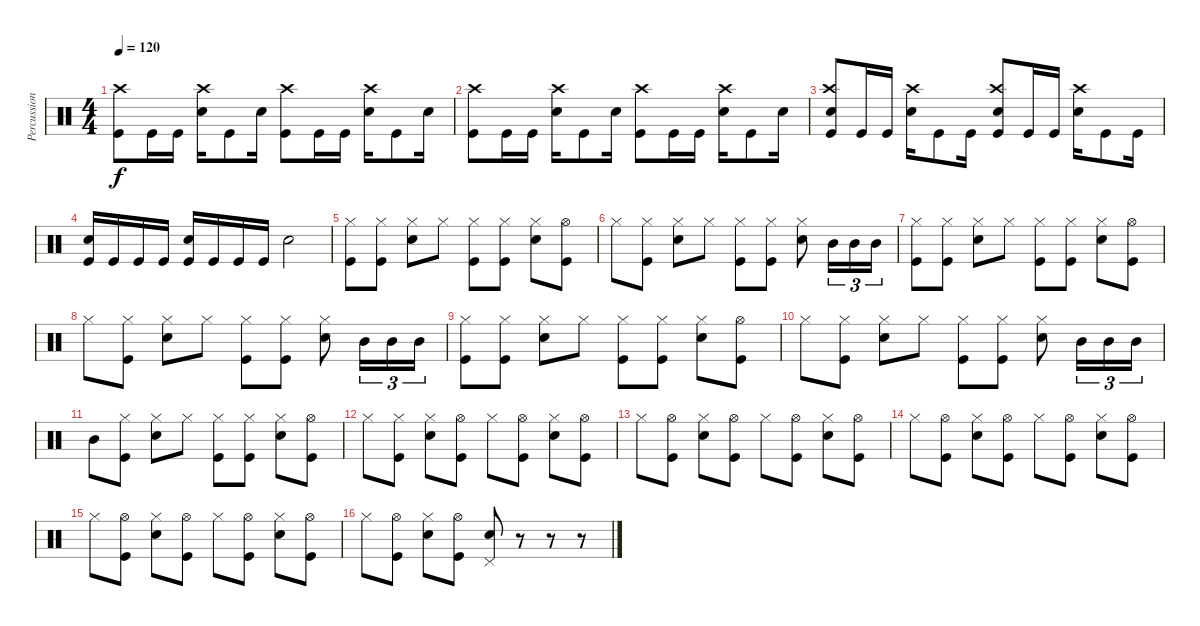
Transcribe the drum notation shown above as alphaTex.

\track ("Percussion" "Percussion") {instrument percussion}
\staff {score}
\articulation defaults
\ts (4 4)
\tempo 120
\clef neutral
\ks c
("Kick (hit)" "Crash high (hit)").8{dy f} "Kick (hit)".16 "Kick (hit)".16 ("Snare (hit) 2" "Crash high (hit)").16 "Kick (hit)".8 "Snare (hit) 2".16 ("Kick (hit)" "Crash high (hit)").8 "Kick (hit)".16 "Kick (hit)".16 ("Snare (hit) 2" "Crash high (hit)").16 "Kick (hit)".8 "Snare (hit) 2".16 |
("Kick (hit)" "Crash high (hit)").8 "Kick (hit)".16 "Kick (hit)".16 ("Snare (hit) 2" "Crash high (hit)").16 "Kick (hit)".8 "Snare (hit) 2".16 ("Kick (hit)" "Crash high (hit)").8 "Kick (hit)".16 "Kick (hit)".16 ("Snare (hit) 2" "Crash high (hit)").16 "Kick (hit)".8 "Snare (hit) 2".16 |
("Kick (hit)" "Crash high (hit)" "Snare (hit) 2").8 "Kick (hit)".16 "Kick (hit)".16 ("Snare (hit) 2" "Crash high (hit)").16 "Kick (hit)".8 "Kick (hit)".16 ("Kick (hit)" "Crash high (hit)" "Snare (hit) 2").8 "Kick (hit)".16 "Kick (hit)".16 ("Snare (hit) 2" "Crash high (hit)").16 "Kick (hit)".8 "Kick (hit)".16 |
("Snare (hit) 2" "Kick (hit)").16 "Kick (hit)".16 "Kick (hit)".16 "Kick (hit)".16 ("Snare (hit) 2" "Kick (hit)").16 "Kick (hit)".16 "Kick (hit)".16 "Kick (hit)".16 "Snare (hit) 2".2 |
("Kick (hit)" "Hi-Hat (closed)").8 ("Hi-Hat (closed)" "Kick (hit)").8 ("Snare (hit) 2" "Hi-Hat (closed)").8 "Hi-Hat (closed)".8 ("Kick (hit)" "Hi-Hat (closed)").8 ("Hi-Hat (closed)" "Kick (hit)").8 ("Hi-Hat (closed)" "Snare (hit) 2").8 ("Hi-Hat (open)" "Kick (hit)").8 |
"Hi-Hat (closed)".8 ("Kick (hit)" "Hi-Hat (closed)").8 ("Hi-Hat (closed)" "Snare (hit) 2").8 "Hi-Hat (closed)".8 ("Hi-Hat (closed)" "Kick (hit)").8 ("Kick (hit)" "Hi-Hat (closed)").8 ("Hi-Hat (closed)" "Snare (hit) 2").8 "Mid Tom (hit)".16{tu (3 2)} "Mid Tom (hit)".16{tu (3 2)} "Mid Tom (hit)".16{tu (3 2)} |
("Kick (hit)" "Hi-Hat (closed)").8 ("Hi-Hat (closed)" "Kick (hit)").8 ("Snare (hit) 2" "Hi-Hat (closed)").8 "Hi-Hat (closed)".8 ("Kick (hit)" "Hi-Hat (closed)").8 ("Hi-Hat (closed)" "Kick (hit)").8 ("Hi-Hat (closed)" "Snare (hit) 2").8 ("Hi-Hat (open)" "Kick (hit)").8 |
"Hi-Hat (closed)".8 ("Kick (hit)" "Hi-Hat (closed)").8 ("Hi-Hat (closed)" "Snare (hit) 2").8 "Hi-Hat (closed)".8 ("Hi-Hat (closed)" "Kick (hit)").8 ("Kick (hit)" "Hi-Hat (closed)").8 ("Hi-Hat (closed)" "Snare (hit) 2").8 "Mid Tom (hit)".16{tu (3 2)} "Mid Tom (hit)".16{tu (3 2)} "Mid Tom (hit)".16{tu (3 2)} |
("Kick (hit)" "Hi-Hat (closed)").8 ("Hi-Hat (closed)" "Kick (hit)").8 ("Snare (hit) 2" "Hi-Hat (closed)").8 "Hi-Hat (closed)".8 ("Kick (hit)" "Hi-Hat (closed)").8 ("Hi-Hat (closed)" "Kick (hit)").8 ("Hi-Hat (closed)" "Snare (hit) 2").8 ("Hi-Hat (open)" "Kick (hit)").8 |
"Hi-Hat (closed)".8 ("Kick (hit)" "Hi-Hat (closed)").8 ("Hi-Hat (closed)" "Snare (hit) 2").8 "Hi-Hat (closed)".8 ("Hi-Hat (closed)" "Kick (hit)").8 ("Kick (hit)" "Hi-Hat (closed)").8 ("Hi-Hat (closed)" "Snare (hit) 2").8 "Mid Tom (hit)".16{tu (3 2)} "Mid Tom (hit)".16{tu (3 2)} "Mid Tom (hit)".16{tu (3 2)} |
"Mid Tom (hit)".8 ("Kick (hit)" "Hi-Hat (closed)").8 ("Snare (hit) 2" "Hi-Hat (closed)").8 "Hi-Hat (closed)".8 ("Kick (hit)" "Hi-Hat (closed)").8 ("Kick (hit)" "Hi-Hat (closed)").8 ("Snare (hit) 2" "Hi-Hat (closed)").8 ("Hi-Hat (open)" "Kick (hit)").8 |
"Hi-Hat (closed)".8 ("Kick (hit)" "Hi-Hat (closed)").8 ("Snare (hit) 2" "Hi-Hat (closed)").8 ("Hi-Hat (open)" "Kick (hit)").8 "Hi-Hat (closed)".8 ("Hi-Hat (open)" "Kick (hit)").8 ("Hi-Hat (closed)" "Snare (hit) 2").8 ("Hi-Hat (open)" "Kick (hit)").8 |
"Hi-Hat (closed)".8 ("Hi-Hat (open)" "Kick (hit)").8 ("Hi-Hat (closed)" "Snare (hit) 2").8 ("Hi-Hat (open)" "Kick (hit)").8 "Hi-Hat (closed)".8 ("Hi-Hat (open)" "Kick (hit)").8 ("Hi-Hat (closed)" "Snare (hit) 2").8 ("Hi-Hat (open)" "Kick (hit)").8 |
"Hi-Hat (closed)".8 ("Hi-Hat (open)" "Kick (hit)").8 ("Hi-Hat (closed)" "Snare (hit) 2").8 ("Hi-Hat (open)" "Kick (hit)").8 "Hi-Hat (closed)".8 ("Hi-Hat (open)" "Kick (hit)").8 ("Hi-Hat (closed)" "Snare (hit) 2").8 ("Hi-Hat (open)" "Kick (hit)").8 |
"Hi-Hat (closed)".8 ("Hi-Hat (open)" "Kick (hit)").8 ("Hi-Hat (closed)" "Snare (hit) 2").8 ("Hi-Hat (open)" "Kick (hit)").8 "Hi-Hat (closed)".8 ("Hi-Hat (open)" "Kick (hit)").8 ("Hi-Hat (closed)" "Snare (hit) 2").8 ("Hi-Hat (open)" "Kick (hit)").8 |
"Hi-Hat (closed)".8 ("Hi-Hat (open)" "Kick (hit)").8 ("Hi-Hat (closed)" "Snare (hit) 2").8 ("Hi-Hat (open)" "Kick (hit)").8 ("Pedal Hi-Hat (hit)" "Snare (hit) 2").8 r.8 r.8 r.8
